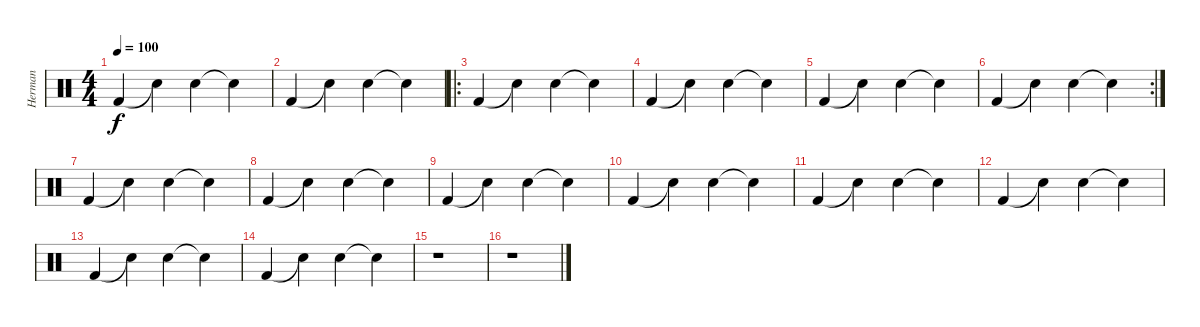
\track ("Herman" "Herman") {instrument percussion}
\staff {score}
\articulation defaults
\ts (4 4)
\tempo 100
\clef neutral
\ks c "Kick (hit) 2".4{dy f} "Snare (hit)"{t}.4 "Snare (hit) 2".4 "Snare (hit)"{t}.4
|
"Kick (hit) 2".4 "Snare (hit)"{t}.4 "Snare (hit) 2".4 "Snare (hit)"{t}.4 |
\ro "Kick (hit) 2".4 "Snare (hit)"{t}.4 "Snare (hit) 2".4 "Snare (hit)"{t}.4
|
"Kick (hit) 2".4 "Snare (hit)"{t}.4 "Snare (hit) 2".4 "Snare (hit)"{t}.4 |
"Kick (hit) 2".4 "Snare (hit)"{t}.4 "Snare (hit) 2".4 "Snare (hit)"{t}.4 |
\rc 2 "Kick (hit) 2".4 "Snare (hit)"{t}.4 "Snare (hit) 2".4 "Snare (hit)"{t}.4
|
"Kick (hit) 2".4 "Snare (hit)"{t}.4 "Snare (hit) 2".4 "Snare (hit)"{t}.4 |
"Kick (hit) 2".4 "Snare (hit)"{t}.4 "Snare (hit) 2".4 "Snare (hit)"{t}.4 |
"Kick (hit) 2".4 "Snare (hit)"{t}.4 "Snare (hit) 2".4 "Snare (hit)"{t}.4 |
"Kick (hit) 2".4 "Snare (hit)"{t}.4 "Snare (hit) 2".4 "Snare (hit)"{t}.4 |
"Kick (hit) 2".4 "Snare (hit)"{t}.4 "Snare (hit) 2".4 "Snare (hit)"{t}.4 |
"Kick (hit) 2".4 "Snare (hit)"{t}.4 "Snare (hit) 2".4 "Snare (hit)"{t}.4 |
"Kick (hit) 2".4 "Snare (hit)"{t}.4 "Snare (hit) 2".4 "Snare (hit)"{t}.4 |
"Kick (hit) 2".4 "Snare (hit)"{t}.4 "Snare (hit) 2".4 "Snare (hit)"{t}.4 |
r.1 |
r.1
